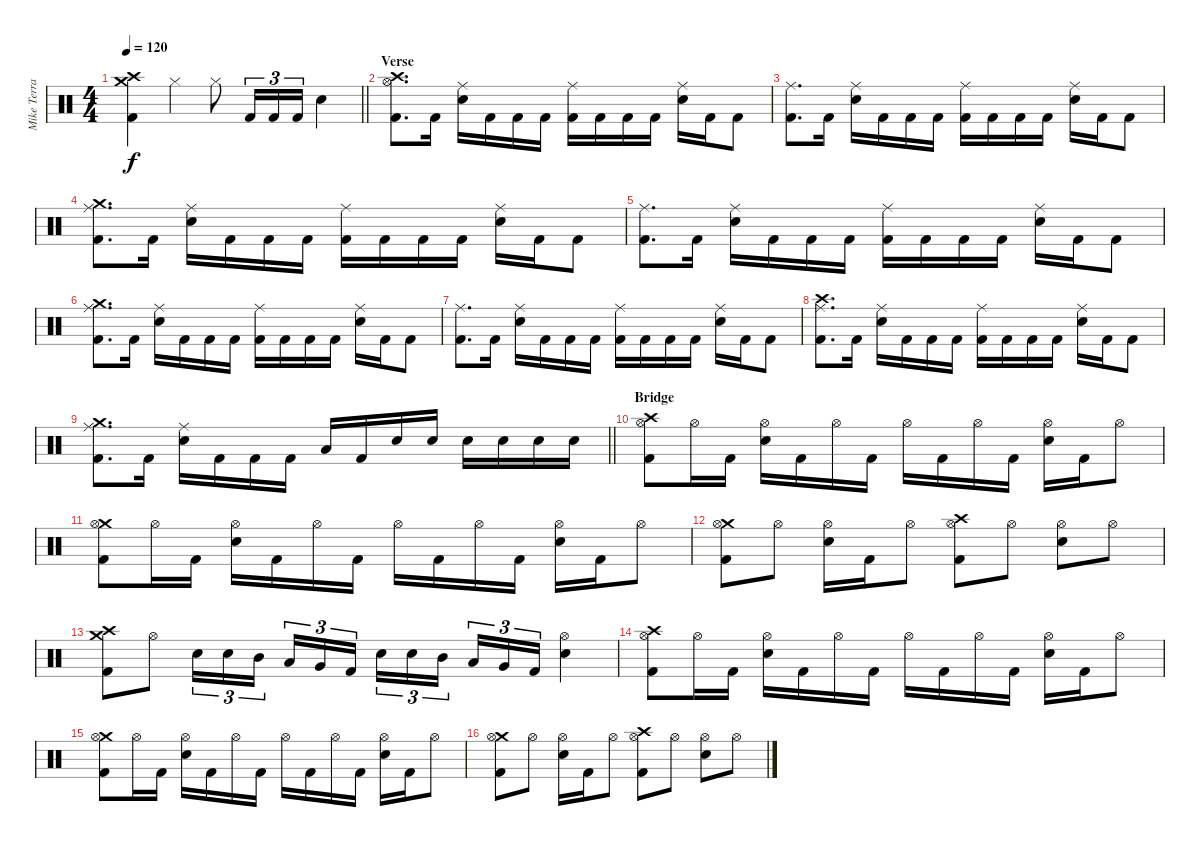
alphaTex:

\track ("Mike Terrana" "Mike Terra") {instrument percussion}
\staff {score}
\articulation defaults
\ts (4 4)
\tempo 120
\clef neutral
\barLineRight lightlight
\ks c
("Crash high (hit)" "Crash medium (hit)" "Kick (hit) 2").4{dy f} "Hi-Hat (closed)".4 "Hi-Hat (closed)".8 "Kick (hit) 2".16{tu (3 2)} "Kick (hit) 2".16{tu (3 2)} "Kick (hit) 2".16{tu (3 2)} "Snare (hit) 2".4 |
\section ("" "Verse")
("Crash high (hit)" "Hi-Hat (open)" "Kick (hit) 2").8{d} "Kick (hit) 2".16 ("Ride (middle)" "Snare (hit) 2").16 "Kick (hit) 2".16 "Kick (hit) 2".16 "Kick (hit) 2".16 ("Ride (middle)" "Kick (hit) 2").16 "Kick (hit) 2".16 "Kick (hit) 2".16 "Kick (hit) 2".16 ("Ride (middle)" "Snare (hit) 2").16 "Kick (hit) 2".16 "Kick (hit) 2".8 |
("Ride (middle)" "Kick (hit) 2").8{d} "Kick (hit) 2".16 ("Ride (middle)" "Snare (hit) 2").16 "Kick (hit) 2".16 "Kick (hit) 2".16 "Kick (hit) 2".16 ("Ride (middle)" "Kick (hit) 2").16 "Kick (hit) 2".16 "Kick (hit) 2".16 "Kick (hit) 2".16 ("Ride (middle)" "Snare (hit) 2").16 "Kick (hit) 2".16 "Kick (hit) 2".8 |
("Crash medium (hit)" "Ride (middle)" "Kick (hit) 2").8{d} "Kick (hit) 2".16 ("Ride (middle)" "Snare (hit) 2").16 "Kick (hit) 2".16 "Kick (hit) 2".16 "Kick (hit) 2".16 ("Ride (middle)" "Kick (hit) 2").16 "Kick (hit) 2".16 "Kick (hit) 2".16 "Kick (hit) 2".16 ("Ride (middle)" "Snare (hit) 2").16 "Kick (hit) 2".16 "Kick (hit) 2".8 |
("Ride (middle)" "Kick (hit) 2").8{d} "Kick (hit) 2".16 ("Ride (middle)" "Snare (hit) 2").16 "Kick (hit) 2".16 "Kick (hit) 2".16 "Kick (hit) 2".16 ("Ride (middle)" "Kick (hit) 2").16 "Kick (hit) 2".16 "Kick (hit) 2".16 "Kick (hit) 2".16 ("Ride (middle)" "Snare (hit) 2").16 "Kick (hit) 2".16 "Kick (hit) 2".8 |
("Crash medium (hit)" "Ride (middle)" "Kick (hit) 2").8{d} "Kick (hit) 2".16 ("Ride (middle)" "Snare (hit) 2").16 "Kick (hit) 2".16 "Kick (hit) 2".16 "Kick (hit) 2".16 ("Ride (middle)" "Kick (hit) 2").16 "Kick (hit) 2".16 "Kick (hit) 2".16 "Kick (hit) 2".16 ("Ride (middle)" "Snare (hit) 2").16 "Kick (hit) 2".16 "Kick (hit) 2".8 |
("Ride (middle)" "Kick (hit) 2").8{d} "Kick (hit) 2".16 ("Ride (middle)" "Snare (hit) 2").16 "Kick (hit) 2".16 "Kick (hit) 2".16 "Kick (hit) 2".16 ("Ride (middle)" "Kick (hit) 2").16 "Kick (hit) 2".16 "Kick (hit) 2".16 "Kick (hit) 2".16 ("Ride (middle)" "Snare (hit) 2").16 "Kick (hit) 2".16 "Kick (hit) 2".8 |
("Crash high (hit)" "Ride (middle)" "Kick (hit) 2").8{d} "Kick (hit) 2".16 ("Ride (middle)" "Snare (hit) 2").16 "Kick (hit) 2".16 "Kick (hit) 2".16 "Kick (hit) 2".16 ("Ride (middle)" "Kick (hit) 2").16 "Kick (hit) 2".16 "Kick (hit) 2".16 "Kick (hit) 2".16 ("Ride (middle)" "Snare (hit) 2").16 "Kick (hit) 2".16 "Kick (hit) 2".8 |
\barLineRight lightlight
("Crash medium (hit)" "Ride (middle)" "Kick (hit) 2").8{d} "Kick (hit) 2".16 ("Ride (middle)" "Snare (hit) 2").16 "Kick (hit) 2".16 "Kick (hit) 2".16 "Kick (hit) 2".16 "Low Tom (hit)".16 "Kick (hit) 2".16 "Snare (hit) 2".16 "Snare (hit) 2".16 "Snare (hit) 2".16 "Snare (hit) 2".16 "Snare (hit) 2".16 "Snare (hit) 2".16 |
\section ("" "Bridge")
("Crash high (hit)" "Hi-Hat (open)" "Kick (hit) 2").8 "Hi-Hat (open)".16 "Kick (hit) 2".16 ("Hi-Hat (open)" "Snare (hit) 2").16 "Kick (hit) 2".16 "Hi-Hat (open)".16 "Kick (hit) 2".16 "Hi-Hat (open)".16 "Kick (hit) 2".16 "Hi-Hat (open)".16 "Kick (hit) 2".16 ("Hi-Hat (open)" "Snare (hit) 2").16 "Kick (hit) 2".16 "Hi-Hat (open)".8 |
("Crash medium (hit)" "Hi-Hat (open)" "Kick (hit) 2").8 "Hi-Hat (open)".16 "Kick (hit) 2".16 ("Hi-Hat (open)" "Snare (hit) 2").16 "Kick (hit) 2".16 "Hi-Hat (open)".16 "Kick (hit) 2".16 "Hi-Hat (open)".16 "Kick (hit) 2".16 "Hi-Hat (open)".16 "Kick (hit) 2".16 ("Hi-Hat (open)" "Snare (hit) 2").16 "Kick (hit) 2".16 "Hi-Hat (open)".8 |
("Crash medium (hit)" "Hi-Hat (open)" "Kick (hit) 2").8 "Hi-Hat (open)".8 ("Hi-Hat (open)" "Snare (hit) 2").16 "Kick (hit) 2".16 "Hi-Hat (open)".8 ("Crash high (hit)" "Hi-Hat (open)" "Kick (hit) 2").8 "Hi-Hat (open)".8 ("Hi-Hat (open)" "Snare (hit) 2").8 "Hi-Hat (open)".8 |
("Crash high (hit)" "Crash medium (hit)" "Kick (hit) 2").8 "Hi-Hat (open)".8 "Snare (hit) 2".16{tu (3 2)} "Snare (hit) 2".16{tu (3 2)} "Mid Tom (hit)".16{tu (3 2) beam splitsecondary} "Low Tom (hit)".16{tu (3 2)} "Very Low Tom (hit)".16{tu (3 2)} "Kick (hit) 2".16{tu (3 2)} "Snare (hit) 2".16{tu (3 2)} "Snare (hit) 2".16{tu (3 2)} "Mid Tom (hit)".16{tu (3 2) beam splitsecondary} "Low Tom (hit)".16{tu (3 2)} "Very Low Tom (hit)".16{tu (3 2)} "Kick (hit) 2".16{tu (3 2)} ("Hi-Hat (open)" "Snare (hit) 2").4 |
("Crash high (hit)" "Hi-Hat (open)" "Kick (hit) 2").8 "Hi-Hat (open)".16 "Kick (hit) 2".16 ("Hi-Hat (open)" "Snare (hit) 2").16 "Kick (hit) 2".16 "Hi-Hat (open)".16 "Kick (hit) 2".16 "Hi-Hat (open)".16 "Kick (hit) 2".16 "Hi-Hat (open)".16 "Kick (hit) 2".16 ("Hi-Hat (open)" "Snare (hit) 2").16 "Kick (hit) 2".16 "Hi-Hat (open)".8 |
("Crash medium (hit)" "Hi-Hat (open)" "Kick (hit) 2").8 "Hi-Hat (open)".16 "Kick (hit) 2".16 ("Hi-Hat (open)" "Snare (hit) 2").16 "Kick (hit) 2".16 "Hi-Hat (open)".16 "Kick (hit) 2".16 "Hi-Hat (open)".16 "Kick (hit) 2".16 "Hi-Hat (open)".16 "Kick (hit) 2".16 ("Hi-Hat (open)" "Snare (hit) 2").16 "Kick (hit) 2".16 "Hi-Hat (open)".8 |
("Crash medium (hit)" "Hi-Hat (open)" "Kick (hit) 2").8 "Hi-Hat (open)".8 ("Hi-Hat (open)" "Snare (hit) 2").16 "Kick (hit) 2".16 "Hi-Hat (open)".8 ("Crash high (hit)" "Hi-Hat (open)" "Kick (hit) 2").8 "Hi-Hat (open)".8 ("Hi-Hat (open)" "Snare (hit) 2").8 "Hi-Hat (open)".8
